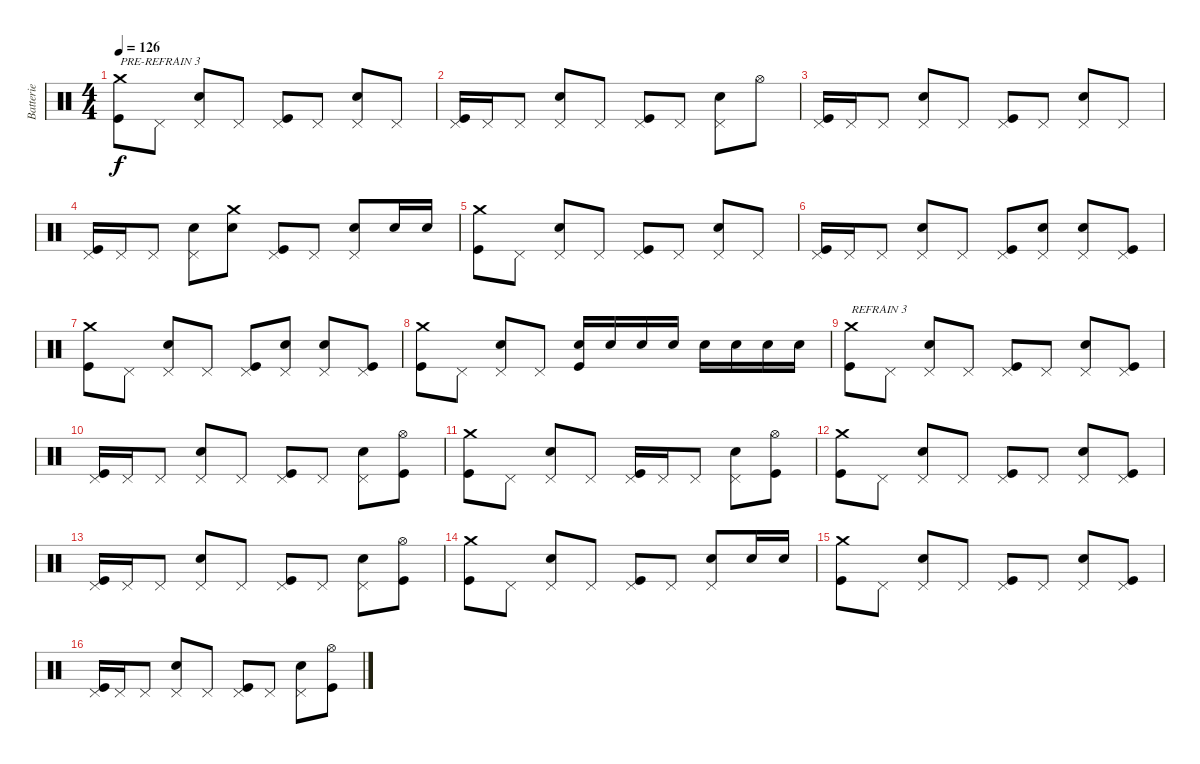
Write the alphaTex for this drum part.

\track ("Batterie" "Batterie") {instrument percussion}
\staff {score}
\articulation defaults
\ts (4 4)
\tempo 126
\clef neutral
\ks c
("Crash medium (hit)" "Kick (hit)").8{txt "PRE-REFRAIN 3" dy f} "Pedal Hi-Hat (hit)".8 ("Pedal Hi-Hat (hit)" "Snare (hit) 2").8 "Pedal Hi-Hat (hit)".8 ("Pedal Hi-Hat (hit)" "Kick (hit)").8 "Pedal Hi-Hat (hit)".8 ("Pedal Hi-Hat (hit)" "Snare (hit) 2").8 "Pedal Hi-Hat (hit)".8 |
("Pedal Hi-Hat (hit)" "Kick (hit)").16 "Pedal Hi-Hat (hit)".16 "Pedal Hi-Hat (hit)".8 ("Pedal Hi-Hat (hit)" "Snare (hit) 2").8 "Pedal Hi-Hat (hit)".8 ("Pedal Hi-Hat (hit)" "Kick (hit)").8 "Pedal Hi-Hat (hit)".8 ("Pedal Hi-Hat (hit)" "Snare (hit) 2").8 "Hi-Hat (open)".8 |
("Pedal Hi-Hat (hit)" "Kick (hit)").16 "Pedal Hi-Hat (hit)".16 "Pedal Hi-Hat (hit)".8 ("Pedal Hi-Hat (hit)" "Snare (hit) 2").8 "Pedal Hi-Hat (hit)".8 ("Pedal Hi-Hat (hit)" "Kick (hit)").8 "Pedal Hi-Hat (hit)".8 ("Pedal Hi-Hat (hit)" "Snare (hit) 2").8 "Pedal Hi-Hat (hit)".8 |
("Pedal Hi-Hat (hit)" "Kick (hit)").16 "Pedal Hi-Hat (hit)".16 "Pedal Hi-Hat (hit)".8 ("Pedal Hi-Hat (hit)" "Snare (hit) 2").8 ("Crash medium (hit)" "Snare (hit) 2").8 ("Pedal Hi-Hat (hit)" "Kick (hit)").8 "Pedal Hi-Hat (hit)".8 ("Pedal Hi-Hat (hit)" "Snare (hit) 2").8 "Snare (hit) 2".16 "Snare (hit) 2".16 |
("Crash medium (hit)" "Kick (hit)").8 "Pedal Hi-Hat (hit)".8 ("Pedal Hi-Hat (hit)" "Snare (hit) 2").8 "Pedal Hi-Hat (hit)".8 ("Pedal Hi-Hat (hit)" "Kick (hit)").8 "Pedal Hi-Hat (hit)".8 ("Pedal Hi-Hat (hit)" "Snare (hit) 2").8 "Pedal Hi-Hat (hit)".8 |
("Pedal Hi-Hat (hit)" "Kick (hit)").16 "Pedal Hi-Hat (hit)".16 "Pedal Hi-Hat (hit)".8 ("Pedal Hi-Hat (hit)" "Snare (hit) 2").8 "Pedal Hi-Hat (hit)".8 ("Pedal Hi-Hat (hit)" "Kick (hit)").8 ("Pedal Hi-Hat (hit)" "Snare (hit) 2").8 ("Pedal Hi-Hat (hit)" "Snare (hit) 2").8 ("Pedal Hi-Hat (hit)" "Kick (hit)").8 |
("Crash medium (hit)" "Kick (hit)").8 "Pedal Hi-Hat (hit)".8 ("Pedal Hi-Hat (hit)" "Snare (hit) 2").8 "Pedal Hi-Hat (hit)".8 ("Pedal Hi-Hat (hit)" "Kick (hit)").8 ("Pedal Hi-Hat (hit)" "Snare (hit) 2").8 ("Pedal Hi-Hat (hit)" "Snare (hit) 2").8 ("Pedal Hi-Hat (hit)" "Kick (hit)").8 |
("Crash medium (hit)" "Kick (hit)").8 "Pedal Hi-Hat (hit)".8 ("Pedal Hi-Hat (hit)" "Snare (hit) 2").8 "Pedal Hi-Hat (hit)".8 ("Snare (hit) 2" "Kick (hit)").16 "Snare (hit) 2".16 "Snare (hit) 2".16 "Snare (hit) 2".16 "Snare (hit) 2".16 "Snare (hit) 2".16 "Snare (hit) 2".16 "Snare (hit) 2".16 |
("Crash medium (hit)" "Kick (hit)").8{txt "REFRAIN 3"} "Pedal Hi-Hat (hit)".8 ("Pedal Hi-Hat (hit)" "Snare (hit) 2").8 "Pedal Hi-Hat (hit)".8 ("Pedal Hi-Hat (hit)" "Kick (hit)").8 "Pedal Hi-Hat (hit)".8 ("Pedal Hi-Hat (hit)" "Snare (hit) 2").8 ("Pedal Hi-Hat (hit)" "Kick (hit)").8 |
("Pedal Hi-Hat (hit)" "Kick (hit)").16 "Pedal Hi-Hat (hit)".16 "Pedal Hi-Hat (hit)".8 ("Pedal Hi-Hat (hit)" "Snare (hit) 2").8 "Pedal Hi-Hat (hit)".8 ("Pedal Hi-Hat (hit)" "Kick (hit)").8 "Pedal Hi-Hat (hit)".8 ("Pedal Hi-Hat (hit)" "Snare (hit) 2").8 ("Hi-Hat (open)" "Kick (hit)").8 |
("Crash medium (hit)" "Kick (hit)").8 "Pedal Hi-Hat (hit)".8 ("Pedal Hi-Hat (hit)" "Snare (hit) 2").8 "Pedal Hi-Hat (hit)".8 ("Pedal Hi-Hat (hit)" "Kick (hit)").16 "Pedal Hi-Hat (hit)".16 "Pedal Hi-Hat (hit)".8 ("Pedal Hi-Hat (hit)" "Snare (hit) 2").8 ("Hi-Hat (open)" "Kick (hit)").8 |
("Crash medium (hit)" "Kick (hit)").8 "Pedal Hi-Hat (hit)".8 ("Pedal Hi-Hat (hit)" "Snare (hit) 2").8 "Pedal Hi-Hat (hit)".8 ("Pedal Hi-Hat (hit)" "Kick (hit)").8 "Pedal Hi-Hat (hit)".8 ("Pedal Hi-Hat (hit)" "Snare (hit) 2").8 ("Pedal Hi-Hat (hit)" "Kick (hit)").8 |
("Pedal Hi-Hat (hit)" "Kick (hit)").16 "Pedal Hi-Hat (hit)".16 "Pedal Hi-Hat (hit)".8 ("Pedal Hi-Hat (hit)" "Snare (hit) 2").8 "Pedal Hi-Hat (hit)".8 ("Pedal Hi-Hat (hit)" "Kick (hit)").8 "Pedal Hi-Hat (hit)".8 ("Pedal Hi-Hat (hit)" "Snare (hit) 2").8 ("Hi-Hat (open)" "Kick (hit)").8 |
("Crash medium (hit)" "Kick (hit)").8 "Pedal Hi-Hat (hit)".8 ("Pedal Hi-Hat (hit)" "Snare (hit) 2").8 "Pedal Hi-Hat (hit)".8 ("Pedal Hi-Hat (hit)" "Kick (hit)").8 "Pedal Hi-Hat (hit)".8 ("Pedal Hi-Hat (hit)" "Snare (hit) 2").8 "Snare (hit) 2".16 "Snare (hit) 2".16 |
("Crash medium (hit)" "Kick (hit)").8 "Pedal Hi-Hat (hit)".8 ("Pedal Hi-Hat (hit)" "Snare (hit) 2").8 "Pedal Hi-Hat (hit)".8 ("Pedal Hi-Hat (hit)" "Kick (hit)").8 "Pedal Hi-Hat (hit)".8 ("Pedal Hi-Hat (hit)" "Snare (hit) 2").8 ("Pedal Hi-Hat (hit)" "Kick (hit)").8 |
("Pedal Hi-Hat (hit)" "Kick (hit)").16 "Pedal Hi-Hat (hit)".16 "Pedal Hi-Hat (hit)".8 ("Pedal Hi-Hat (hit)" "Snare (hit) 2").8 "Pedal Hi-Hat (hit)".8 ("Pedal Hi-Hat (hit)" "Kick (hit)").8 "Pedal Hi-Hat (hit)".8 ("Pedal Hi-Hat (hit)" "Snare (hit) 2").8 ("Hi-Hat (open)" "Kick (hit)").8
